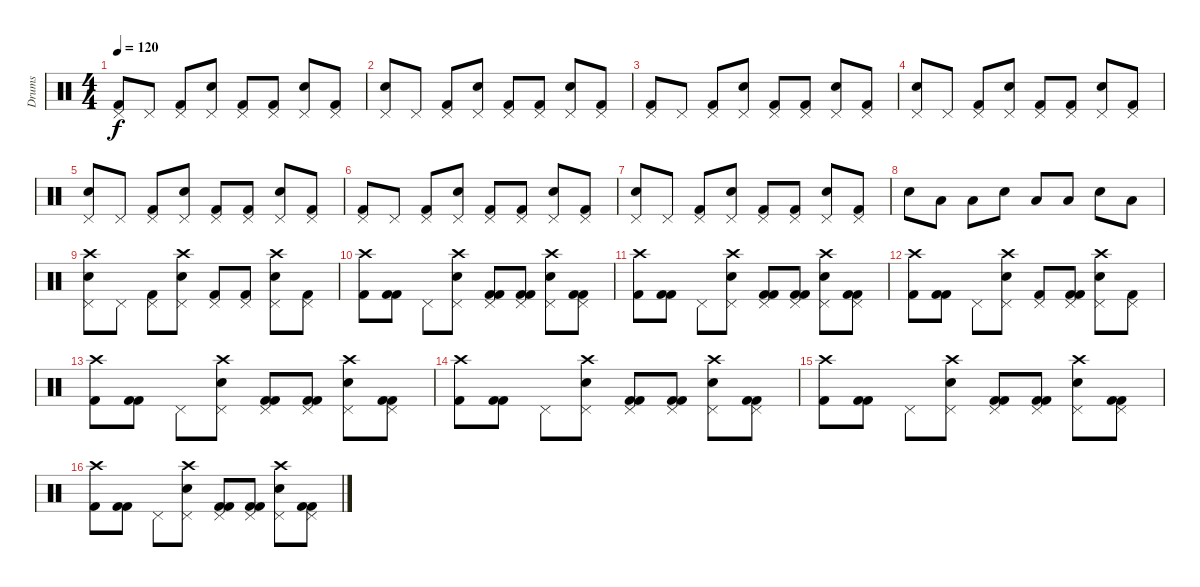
\track ("Drums" "Drums") {instrument percussion}
\staff {score}
\articulation defaults
\ts (4 4)
\tempo 120
\clef neutral
\ks c
("Kick (hit) 2" "Pedal Hi-Hat (hit)").8{dy f} "Pedal Hi-Hat (hit)".8 ("Kick (hit) 2" "Pedal Hi-Hat (hit)").8 ("Snare (hit) 2" "Pedal Hi-Hat (hit)").8 ("Kick (hit) 2" "Pedal Hi-Hat (hit)").8 ("Kick (hit) 2" "Pedal Hi-Hat (hit)").8 ("Snare (hit) 2" "Pedal Hi-Hat (hit)").8 ("Kick (hit) 2" "Pedal Hi-Hat (hit)").8 |
("Snare (hit) 2" "Pedal Hi-Hat (hit)").8 "Pedal Hi-Hat (hit)".8 ("Kick (hit) 2" "Pedal Hi-Hat (hit)").8 ("Snare (hit) 2" "Pedal Hi-Hat (hit)").8 ("Kick (hit) 2" "Pedal Hi-Hat (hit)").8 ("Kick (hit) 2" "Pedal Hi-Hat (hit)").8 ("Snare (hit) 2" "Pedal Hi-Hat (hit)").8 ("Kick (hit) 2" "Pedal Hi-Hat (hit)").8 |
("Kick (hit) 2" "Pedal Hi-Hat (hit)").8 "Pedal Hi-Hat (hit)".8 ("Kick (hit) 2" "Pedal Hi-Hat (hit)").8 ("Snare (hit) 2" "Pedal Hi-Hat (hit)").8 ("Kick (hit) 2" "Pedal Hi-Hat (hit)").8 ("Kick (hit) 2" "Pedal Hi-Hat (hit)").8 ("Snare (hit) 2" "Pedal Hi-Hat (hit)").8 ("Kick (hit) 2" "Pedal Hi-Hat (hit)").8 |
("Snare (hit) 2" "Pedal Hi-Hat (hit)").8 "Pedal Hi-Hat (hit)".8 ("Kick (hit) 2" "Pedal Hi-Hat (hit)").8 ("Snare (hit) 2" "Pedal Hi-Hat (hit)").8 ("Kick (hit) 2" "Pedal Hi-Hat (hit)").8 ("Kick (hit) 2" "Pedal Hi-Hat (hit)").8 ("Snare (hit) 2" "Pedal Hi-Hat (hit)").8 ("Kick (hit) 2" "Pedal Hi-Hat (hit)").8 |
("Snare (hit) 2" "Pedal Hi-Hat (hit)").8 "Pedal Hi-Hat (hit)".8 ("Kick (hit) 2" "Pedal Hi-Hat (hit)").8 ("Snare (hit) 2" "Pedal Hi-Hat (hit)").8 ("Kick (hit) 2" "Pedal Hi-Hat (hit)").8 ("Kick (hit) 2" "Pedal Hi-Hat (hit)").8 ("Snare (hit) 2" "Pedal Hi-Hat (hit)").8 ("Kick (hit) 2" "Pedal Hi-Hat (hit)").8 |
("Kick (hit) 2" "Pedal Hi-Hat (hit)").8 "Pedal Hi-Hat (hit)".8 ("Kick (hit) 2" "Pedal Hi-Hat (hit)").8 ("Snare (hit) 2" "Pedal Hi-Hat (hit)").8 ("Kick (hit) 2" "Pedal Hi-Hat (hit)").8 ("Kick (hit) 2" "Pedal Hi-Hat (hit)").8 ("Snare (hit) 2" "Pedal Hi-Hat (hit)").8 ("Kick (hit) 2" "Pedal Hi-Hat (hit)").8 |
("Snare (hit) 2" "Pedal Hi-Hat (hit)").8 "Pedal Hi-Hat (hit)".8 ("Kick (hit) 2" "Pedal Hi-Hat (hit)").8 ("Snare (hit) 2" "Pedal Hi-Hat (hit)").8 ("Kick (hit) 2" "Pedal Hi-Hat (hit)").8 ("Kick (hit) 2" "Pedal Hi-Hat (hit)").8 ("Snare (hit) 2" "Pedal Hi-Hat (hit)").8 ("Kick (hit) 2" "Pedal Hi-Hat (hit)").8 |
"Snare (hit) 2".8 "Low Tom (hit)".8 "Low Tom (hit)".8 "Snare (hit) 2".8 "Low Tom (hit)".8 "Low Tom (hit)".8 "Snare (hit) 2".8 "Low Tom (hit)".8 |
("Crash high (hit)" "Snare (hit) 2" "Pedal Hi-Hat (hit)").8 "Pedal Hi-Hat (hit)".8 ("Kick (hit) 2" "Pedal Hi-Hat (hit)").8 ("Crash high (hit)" "Snare (hit) 2" "Pedal Hi-Hat (hit)").8 ("Kick (hit) 2" "Pedal Hi-Hat (hit)").8 ("Kick (hit) 2" "Pedal Hi-Hat (hit)").8 ("Crash high (hit)" "Snare (hit) 2" "Pedal Hi-Hat (hit)").8 ("Kick (hit) 2" "Pedal Hi-Hat (hit)").8 |
("Kick (hit) 2" "Crash high (hit)").8 ("Kick (hit) 2" "Kick (hit) 2").8 "Pedal Hi-Hat (hit)".8 ("Crash high (hit)" "Snare (hit) 2" "Pedal Hi-Hat (hit)").8 ("Kick (hit) 2" "Kick (hit) 2" "Pedal Hi-Hat (hit)").8 ("Kick (hit) 2" "Kick (hit) 2" "Pedal Hi-Hat (hit)").8 ("Crash high (hit)" "Snare (hit) 2" "Pedal Hi-Hat (hit)").8 ("Kick (hit) 2" "Kick (hit) 2" "Pedal Hi-Hat (hit)").8 |
("Kick (hit) 2" "Crash high (hit)").8 ("Kick (hit) 2" "Kick (hit) 2").8 "Pedal Hi-Hat (hit)".8 ("Crash high (hit)" "Snare (hit) 2" "Pedal Hi-Hat (hit)").8 ("Kick (hit) 2" "Kick (hit) 2" "Pedal Hi-Hat (hit)").8 ("Kick (hit) 2" "Kick (hit) 2" "Pedal Hi-Hat (hit)").8 ("Crash high (hit)" "Snare (hit) 2" "Pedal Hi-Hat (hit)").8 ("Kick (hit) 2" "Kick (hit) 2" "Pedal Hi-Hat (hit)").8 |
("Kick (hit) 2" "Crash high (hit)").8 ("Kick (hit) 2" "Kick (hit) 2").8 "Pedal Hi-Hat (hit)".8 ("Crash high (hit)" "Snare (hit) 2" "Pedal Hi-Hat (hit)").8 ("Kick (hit) 2" "Pedal Hi-Hat (hit)").8 ("Kick (hit) 2" "Kick (hit) 2" "Pedal Hi-Hat (hit)").8 ("Crash high (hit)" "Snare (hit) 2" "Pedal Hi-Hat (hit)").8 ("Kick (hit) 2" "Pedal Hi-Hat (hit)").8 |
("Kick (hit) 2" "Crash high (hit)").8 ("Kick (hit) 2" "Kick (hit) 2").8 "Pedal Hi-Hat (hit)".8 ("Crash high (hit)" "Snare (hit) 2" "Pedal Hi-Hat (hit)").8 ("Kick (hit) 2" "Kick (hit) 2" "Pedal Hi-Hat (hit)").8 ("Kick (hit) 2" "Kick (hit) 2" "Pedal Hi-Hat (hit)").8 ("Crash high (hit)" "Snare (hit) 2" "Pedal Hi-Hat (hit)").8 ("Kick (hit) 2" "Kick (hit) 2" "Pedal Hi-Hat (hit)").8 |
("Kick (hit) 2" "Crash high (hit)").8 ("Kick (hit) 2" "Kick (hit) 2").8 "Pedal Hi-Hat (hit)".8 ("Crash high (hit)" "Snare (hit) 2" "Pedal Hi-Hat (hit)").8 ("Kick (hit) 2" "Kick (hit) 2" "Pedal Hi-Hat (hit)").8 ("Kick (hit) 2" "Kick (hit) 2" "Pedal Hi-Hat (hit)").8 ("Crash high (hit)" "Snare (hit) 2" "Pedal Hi-Hat (hit)").8 ("Kick (hit) 2" "Kick (hit) 2" "Pedal Hi-Hat (hit)").8 |
("Kick (hit) 2" "Crash high (hit)").8 ("Kick (hit) 2" "Kick (hit) 2").8 "Pedal Hi-Hat (hit)".8 ("Crash high (hit)" "Snare (hit) 2" "Pedal Hi-Hat (hit)").8 ("Kick (hit) 2" "Kick (hit) 2" "Pedal Hi-Hat (hit)").8 ("Kick (hit) 2" "Kick (hit) 2" "Pedal Hi-Hat (hit)").8 ("Crash high (hit)" "Snare (hit) 2" "Pedal Hi-Hat (hit)").8 ("Kick (hit) 2" "Kick (hit) 2" "Pedal Hi-Hat (hit)").8 |
("Kick (hit) 2" "Crash high (hit)").8 ("Kick (hit) 2" "Kick (hit) 2").8 "Pedal Hi-Hat (hit)".8 ("Crash high (hit)" "Snare (hit) 2" "Pedal Hi-Hat (hit)").8 ("Kick (hit) 2" "Kick (hit) 2" "Pedal Hi-Hat (hit)").8 ("Kick (hit) 2" "Kick (hit) 2" "Pedal Hi-Hat (hit)").8 ("Crash high (hit)" "Snare (hit) 2" "Pedal Hi-Hat (hit)").8 ("Kick (hit) 2" "Kick (hit) 2" "Pedal Hi-Hat (hit)").8
